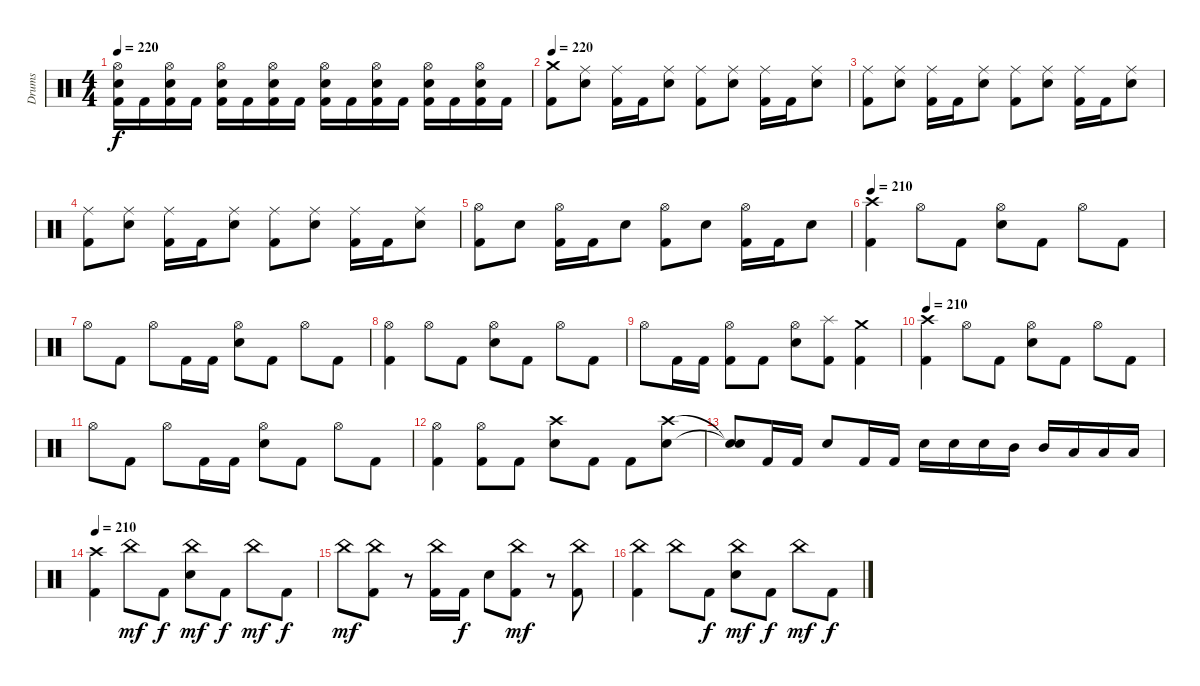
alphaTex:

\track ("Drums" "Drums") {instrument percussion}
\staff {score}
\articulation defaults
\ts (4 4)
\tempo 220
\clef neutral
\ks c
("Hi-Hat (open)" "Electric Snare (hit)" "Kick (hit) 2").16{dy f} "Kick (hit) 2".16 ("Hi-Hat (open)" "Electric Snare (hit)" "Kick (hit) 2").16 "Kick (hit) 2".16 ("Hi-Hat (open)" "Electric Snare (hit)" "Kick (hit) 2").16 "Kick (hit) 2".16 ("Hi-Hat (open)" "Electric Snare (hit)" "Kick (hit) 2").16 "Kick (hit) 2".16 ("Hi-Hat (open)" "Electric Snare (hit)" "Kick (hit) 2").16 "Kick (hit) 2".16 ("Hi-Hat (open)" "Electric Snare (hit)" "Kick (hit) 2").16 "Kick (hit) 2".16 ("Hi-Hat (open)" "Electric Snare (hit)" "Kick (hit) 2").16 "Kick (hit) 2".16 ("Hi-Hat (open)" "Electric Snare (hit)" "Kick (hit) 2").16 "Kick (hit) 2".16 |
\tempo 220
("Crash medium (hit)" "Kick (hit) 2").8 ("Ride (middle)" "Electric Snare (hit)").8 ("Ride (middle)" "Kick (hit) 2").16 "Kick (hit) 2".16 ("Ride (middle)" "Electric Snare (hit)").8 ("Ride (middle)" "Kick (hit) 2").8 ("Ride (middle)" "Electric Snare (hit)").8 ("Ride (middle)" "Kick (hit) 2").16 "Kick (hit) 2".16 ("Ride (middle)" "Electric Snare (hit)").8 |
("Ride (middle)" "Kick (hit) 2").8 ("Ride (middle)" "Electric Snare (hit)").8 ("Ride (middle)" "Kick (hit) 2").16 "Kick (hit) 2".16 ("Ride (middle)" "Electric Snare (hit)").8 ("Ride (middle)" "Kick (hit) 2").8 ("Ride (middle)" "Electric Snare (hit)").8 ("Ride (middle)" "Kick (hit) 2").16 "Kick (hit) 2".16 ("Ride (middle)" "Electric Snare (hit)").8 |
("Ride (middle)" "Kick (hit) 2").8 ("Ride (middle)" "Electric Snare (hit)").8 ("Ride (middle)" "Kick (hit) 2").16 "Kick (hit) 2".16 ("Ride (middle)" "Electric Snare (hit)").8 ("Ride (middle)" "Kick (hit) 2").8 ("Ride (middle)" "Electric Snare (hit)").8 ("Ride (middle)" "Kick (hit) 2").16 "Kick (hit) 2".16 ("Ride (middle)" "Electric Snare (hit)").8 |
("Hi-Hat (open)" "Kick (hit) 2").8 "Electric Snare (hit)".8 ("Hi-Hat (open)" "Kick (hit) 2").16 "Kick (hit) 2".16 "Electric Snare (hit)".8 ("Hi-Hat (open)" "Kick (hit) 2").8 "Electric Snare (hit)".8 ("Hi-Hat (open)" "Kick (hit) 2").16 "Kick (hit) 2".16 "Electric Snare (hit)".8 |
\tempo 210
("Crash high (hit)" "Kick (hit) 2").4 "Hi-Hat (open)".8 "Kick (hit) 2".8 ("Hi-Hat (open)" "Electric Snare (hit)").8 "Kick (hit) 2".8 "Hi-Hat (open)".8 "Kick (hit) 2".8 |
"Hi-Hat (open)".8 "Kick (hit) 2".8 "Hi-Hat (open)".8 "Kick (hit) 2".16 "Kick (hit) 2".16 ("Hi-Hat (open)" "Electric Snare (hit)").8 "Kick (hit) 2".8 "Hi-Hat (open)".8 "Kick (hit) 2".8 |
("Hi-Hat (open)" "Kick (hit) 2").4 "Hi-Hat (open)".8 "Kick (hit) 2".8 ("Hi-Hat (open)" "Electric Snare (hit)").8 "Kick (hit) 2".8 "Hi-Hat (open)".8 "Kick (hit) 2".8 |
"Hi-Hat (open)".8 "Kick (hit) 2".16 "Kick (hit) 2".16 ("Hi-Hat (open)" "Kick (hit) 2").8 "Kick (hit) 2".8 ("Hi-Hat (open)" "Electric Snare (hit)").8 ("Splash (hit)" "Kick (hit) 2").8 ("Crash medium (hit)" "Kick (hit) 2").4 |
\tempo 210
("Crash high (hit)" "Kick (hit) 2").4 "Hi-Hat (open)".8 "Kick (hit) 2".8 ("Hi-Hat (open)" "Electric Snare (hit)").8 "Kick (hit) 2".8 "Hi-Hat (open)".8 "Kick (hit) 2".8 |
"Hi-Hat (open)".8 "Kick (hit) 2".8 "Hi-Hat (open)".8 "Kick (hit) 2".16 "Kick (hit) 2".16 ("Hi-Hat (open)" "Electric Snare (hit)").8 "Kick (hit) 2".8 "Hi-Hat (open)".8 "Kick (hit) 2".8 |
("Hi-Hat (open)" "Kick (hit) 2").4 ("Hi-Hat (open)" "Kick (hit) 2").8 "Kick (hit) 2".8 ("Crash high (hit)" "Electric Snare (hit)").8 "Kick (hit) 2".8 "Kick (hit) 2".8 ("Crash high (hit)" "Electric Snare (hit)").8 |
("Snare (hit)"{t} "Snare (hit)"{t}).8 "Kick (hit) 2".16 "Kick (hit) 2".16 "Electric Snare (hit)".8 "Kick (hit) 2".16 "Kick (hit) 2".16 "Electric Snare (hit)".16 "Electric Snare (hit)".16 "Electric Snare (hit)".16 "Mid Tom (hit)".16 "Mid Tom (hit)".16 "Low Tom (hit)".16 "Low Tom (hit)".16 "Low Tom (hit)".16 |
\tempo 210
("Crash high (hit)" "Kick (hit) 2").4 "China (hit)".8{dy mf} "Kick (hit) 2".8{dy f} ("China (hit)" "Electric Snare (hit)").8{dy mf} "Kick (hit) 2".8{dy f} "China (hit)".8{dy mf} "Kick (hit) 2".8{dy f} |
"China (hit)".8{dy mf} ("China (hit)" "Kick (hit) 2").8 r.8 ("China (hit)" "Kick (hit) 2").16 "Kick (hit) 2".16{dy f} "Electric Snare (hit)".8 ("China (hit)" "Kick (hit) 2").8{dy mf} r.8 ("China (hit)" "Kick (hit) 2").8 |
("China (hit)" "Kick (hit) 2").4 "China (hit)".8 "Kick (hit) 2".8{dy f} ("China (hit)" "Electric Snare (hit)").8{dy mf} "Kick (hit) 2".8{dy f} "China (hit)".8{dy mf} "Kick (hit) 2".8{dy f}
